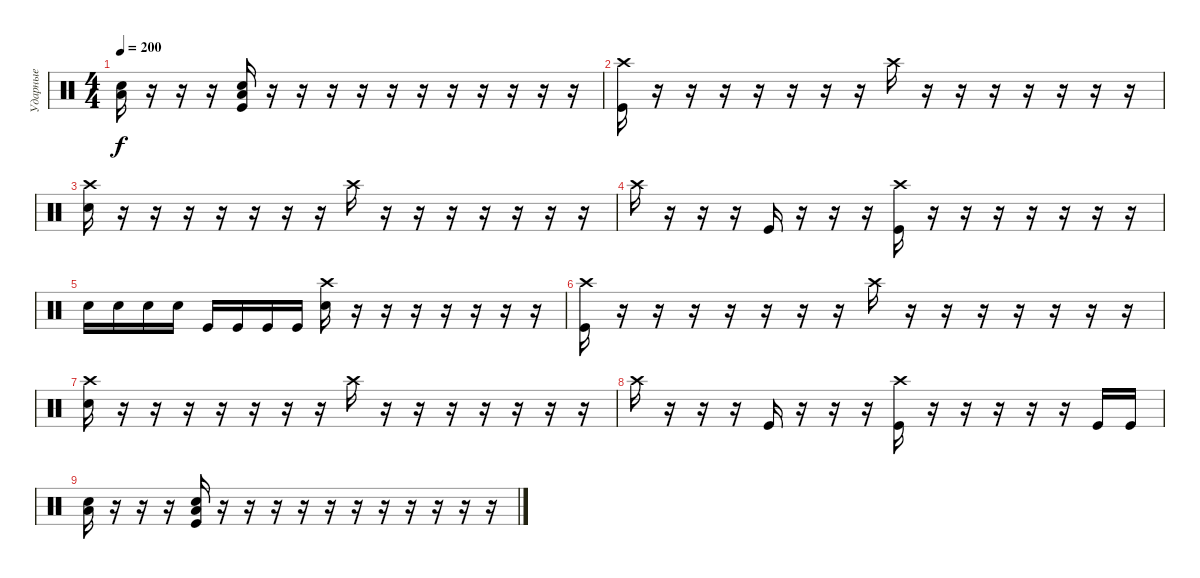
\track ("Ударные" "Ударные") {instrument percussion}
\staff {score}
\articulation defaults
\ts (4 4)
\tempo 200
\clef neutral
\ks c
("Low Floor Tom (hit)" "Electric Snare (hit)").16{dy f} r.16 r.16 r.16 ("Low Floor Tom (hit)" "Kick (hit)" "Electric Snare (hit)").16 r.16 r.16 r.16 r.16 r.16 r.16 r.16 r.16 r.16 r.16 r.16 |
("Crash high (hit)" "Kick (hit)").16 r.16 r.16 r.16 r.16 r.16 r.16 r.16 "Crash high (hit)".16 r.16 r.16 r.16 r.16 r.16 r.16 r.16 |
("Crash high (hit)" "Electric Snare (hit)").16 r.16 r.16 r.16 r.16 r.16 r.16 r.16 "Crash high (hit)".16 r.16 r.16 r.16 r.16 r.16 r.16 r.16 |
"Crash high (hit)".16 r.16 r.16 r.16 "Kick (hit)".16 r.16 r.16 r.16 ("Crash high (hit)" "Kick (hit)").16 r.16 r.16 r.16 r.16 r.16 r.16 r.16 |
"Electric Snare (hit)".16 "Electric Snare (hit)".16 "Electric Snare (hit)".16 "Electric Snare (hit)".16 "Kick (hit)".16 "Kick (hit)".16 "Kick (hit)".16 "Kick (hit)".16 ("Crash high (hit)" "Electric Snare (hit)").16 r.16 r.16 r.16 r.16 r.16 r.16 r.16 |
("Crash high (hit)" "Kick (hit)").16 r.16 r.16 r.16 r.16 r.16 r.16 r.16 "Crash high (hit)".16 r.16 r.16 r.16 r.16 r.16 r.16 r.16 |
("Crash high (hit)" "Electric Snare (hit)").16 r.16 r.16 r.16 r.16 r.16 r.16 r.16 "Crash high (hit)".16 r.16 r.16 r.16 r.16 r.16 r.16 r.16 |
"Crash high (hit)".16 r.16 r.16 r.16 "Kick (hit)".16 r.16 r.16 r.16 ("Crash high (hit)" "Kick (hit)").16 r.16 r.16 r.16 r.16 r.16 "Kick (hit)".16 "Kick (hit)".16 |
("Low Floor Tom (hit)" "Electric Snare (hit)").16 r.16 r.16 r.16 ("Low Floor Tom (hit)" "Kick (hit)" "Electric Snare (hit)").16 r.16 r.16 r.16 r.16 r.16 r.16 r.16 r.16 r.16 r.16 r.16
